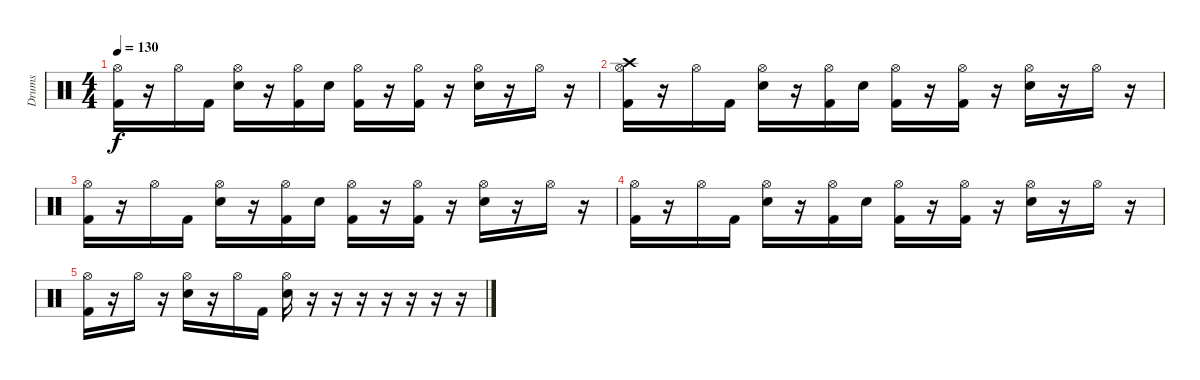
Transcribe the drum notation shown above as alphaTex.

\track ("Drums" "Drums") {instrument percussion}
\staff {score}
\articulation defaults
\ts (4 4)
\tempo 130
\clef neutral
\ks c
("Kick (hit) 2" "Hi-Hat (open)").16{dy f} r.16 "Hi-Hat (open)".16 "Kick (hit) 2".16 ("Electric Snare (hit)" "Hi-Hat (open)").16 r.16 ("Kick (hit) 2" "Hi-Hat (open)").16 "Electric Snare (hit)".16 ("Kick (hit) 2" "Hi-Hat (open)").16 r.16 ("Kick (hit) 2" "Hi-Hat (open)").16 r.16 ("Electric Snare (hit)" "Hi-Hat (open)").16 r.16 "Hi-Hat (open)".16 r.16 |
("Kick (hit) 2" "Crash high (hit)" "Hi-Hat (open)").16 r.16 "Hi-Hat (open)".16 "Kick (hit) 2".16 ("Electric Snare (hit)" "Hi-Hat (open)").16 r.16 ("Kick (hit) 2" "Hi-Hat (open)").16 "Electric Snare (hit)".16 ("Kick (hit) 2" "Hi-Hat (open)").16 r.16 ("Kick (hit) 2" "Hi-Hat (open)").16 r.16 ("Electric Snare (hit)" "Hi-Hat (open)").16 r.16 "Hi-Hat (open)".16 r.16 |
("Kick (hit) 2" "Hi-Hat (open)").16 r.16 "Hi-Hat (open)".16 "Kick (hit) 2".16 ("Electric Snare (hit)" "Hi-Hat (open)").16 r.16 ("Kick (hit) 2" "Hi-Hat (open)").16 "Electric Snare (hit)".16 ("Kick (hit) 2" "Hi-Hat (open)").16 r.16 ("Kick (hit) 2" "Hi-Hat (open)").16 r.16 ("Electric Snare (hit)" "Hi-Hat (open)").16 r.16 "Hi-Hat (open)".16 r.16 |
("Kick (hit) 2" "Hi-Hat (open)").16 r.16 "Hi-Hat (open)".16 "Kick (hit) 2".16 ("Electric Snare (hit)" "Hi-Hat (open)").16 r.16 ("Kick (hit) 2" "Hi-Hat (open)").16 "Electric Snare (hit)".16 ("Kick (hit) 2" "Hi-Hat (open)").16 r.16 ("Kick (hit) 2" "Hi-Hat (open)").16 r.16 ("Electric Snare (hit)" "Hi-Hat (open)").16 r.16 "Hi-Hat (open)".16 r.16 |
("Kick (hit) 2" "Hi-Hat (open)").16 r.16 "Hi-Hat (open)".16 r.16 ("Electric Snare (hit)" "Hi-Hat (open)").16 r.16 "Hi-Hat (open)".16 "Kick (hit) 2".16 ("Electric Snare (hit)" "Hi-Hat (open)").16 r.16 r.16 r.16 r.16 r.16 r.16 r.16
